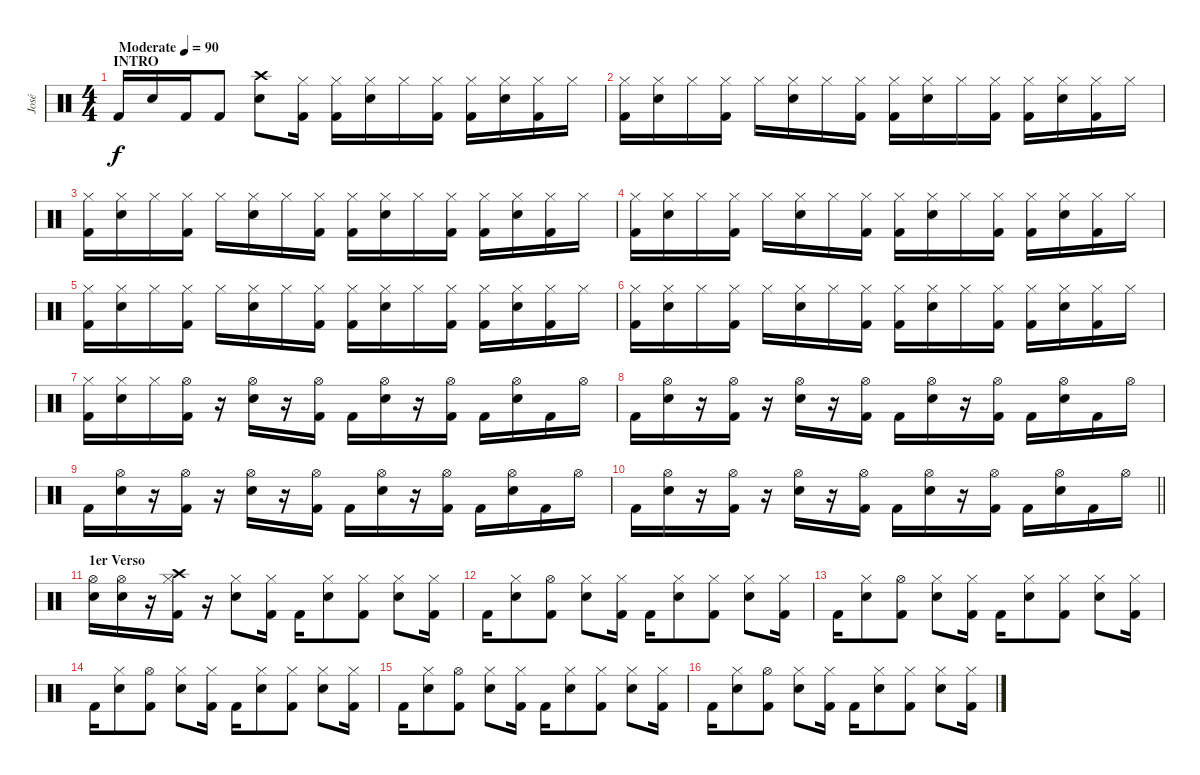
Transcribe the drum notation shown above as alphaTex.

\track ("José" "José") {instrument percussion}
\staff {score}
\articulation defaults
\ts (4 4)
\section ("" "INTRO")
\tempo (90 "Moderate")
\clef neutral
\ks c "Kick (hit) 2".16{dy f} "Electric Snare (hit)".16 "Kick (hit) 2".16 "Kick (hit) 2".8
("Crash high (hit)" "Electric Snare (hit)").8 ("Hi-Hat (closed)" "Kick (hit) 2").16 ("Hi-Hat (closed)" "Kick (hit) 2").16 ("Hi-Hat (closed)" "Electric Snare (hit)").16 "Hi-Hat (closed)".16 ("Hi-Hat (closed)" "Kick (hit) 2").16 ("Hi-Hat (closed)" "Kick (hit) 2").16 ("Hi-Hat (closed)" "Electric Snare (hit)").16 ("Hi-Hat (closed)" "Kick (hit) 2").16 "Hi-Hat (closed)".16 |
("Hi-Hat (closed)" "Kick (hit) 2").16 ("Hi-Hat (closed)" "Electric Snare (hit)").16 "Hi-Hat (closed)".16 ("Hi-Hat (closed)" "Kick (hit) 2").16 "Hi-Hat (closed)".16 ("Hi-Hat (closed)" "Electric Snare (hit)").16 "Hi-Hat (closed)".16 ("Hi-Hat (closed)" "Kick (hit) 2").16 ("Hi-Hat (closed)" "Kick (hit) 2").16 ("Hi-Hat (closed)" "Electric Snare (hit)").16 "Hi-Hat (closed)".16 ("Hi-Hat (closed)" "Kick (hit) 2").16 ("Hi-Hat (closed)" "Kick (hit) 2").16 ("Hi-Hat (closed)" "Electric Snare (hit)").16 ("Hi-Hat (closed)" "Kick (hit) 2").16 "Hi-Hat (closed)".16 |
("Hi-Hat (closed)" "Kick (hit) 2").16 ("Hi-Hat (closed)" "Electric Snare (hit)").16 "Hi-Hat (closed)".16 ("Hi-Hat (closed)" "Kick (hit) 2").16 "Hi-Hat (closed)".16 ("Hi-Hat (closed)" "Electric Snare (hit)").16 "Hi-Hat (closed)".16 ("Hi-Hat (closed)" "Kick (hit) 2").16 ("Hi-Hat (closed)" "Kick (hit) 2").16 ("Hi-Hat (closed)" "Electric Snare (hit)").16 "Hi-Hat (closed)".16 ("Hi-Hat (closed)" "Kick (hit) 2").16 ("Hi-Hat (closed)" "Kick (hit) 2").16 ("Hi-Hat (closed)" "Electric Snare (hit)").16 ("Hi-Hat (closed)" "Kick (hit) 2").16 "Hi-Hat (closed)".16 |
("Hi-Hat (closed)" "Kick (hit) 2").16 ("Hi-Hat (closed)" "Electric Snare (hit)").16 "Hi-Hat (closed)".16 ("Hi-Hat (closed)" "Kick (hit) 2").16 "Hi-Hat (closed)".16 ("Hi-Hat (closed)" "Electric Snare (hit)").16 "Hi-Hat (closed)".16 ("Hi-Hat (closed)" "Kick (hit) 2").16 ("Hi-Hat (closed)" "Kick (hit) 2").16 ("Hi-Hat (closed)" "Electric Snare (hit)").16 "Hi-Hat (closed)".16 ("Hi-Hat (closed)" "Kick (hit) 2").16 ("Hi-Hat (closed)" "Kick (hit) 2").16 ("Hi-Hat (closed)" "Electric Snare (hit)").16 ("Hi-Hat (closed)" "Kick (hit) 2").16 "Hi-Hat (closed)".16 |
("Hi-Hat (closed)" "Kick (hit) 2").16 ("Hi-Hat (closed)" "Electric Snare (hit)").16 "Hi-Hat (closed)".16 ("Hi-Hat (closed)" "Kick (hit) 2").16 "Hi-Hat (closed)".16 ("Hi-Hat (closed)" "Electric Snare (hit)").16 "Hi-Hat (closed)".16 ("Hi-Hat (closed)" "Kick (hit) 2").16 ("Hi-Hat (closed)" "Kick (hit) 2").16 ("Hi-Hat (closed)" "Electric Snare (hit)").16 "Hi-Hat (closed)".16 ("Hi-Hat (closed)" "Kick (hit) 2").16 ("Hi-Hat (closed)" "Kick (hit) 2").16 ("Hi-Hat (closed)" "Electric Snare (hit)").16 ("Hi-Hat (closed)" "Kick (hit) 2").16 "Hi-Hat (closed)".16 |
("Hi-Hat (closed)" "Kick (hit) 2").16 ("Hi-Hat (closed)" "Electric Snare (hit)").16 "Hi-Hat (closed)".16 ("Hi-Hat (closed)" "Kick (hit) 2").16 "Hi-Hat (closed)".16 ("Hi-Hat (closed)" "Electric Snare (hit)").16 "Hi-Hat (closed)".16 ("Hi-Hat (closed)" "Kick (hit) 2").16 ("Hi-Hat (closed)" "Kick (hit) 2").16 ("Hi-Hat (closed)" "Electric Snare (hit)").16 "Hi-Hat (closed)".16 ("Hi-Hat (closed)" "Kick (hit) 2").16 ("Hi-Hat (closed)" "Kick (hit) 2").16 ("Hi-Hat (closed)" "Electric Snare (hit)").16 ("Hi-Hat (closed)" "Kick (hit) 2").16 "Hi-Hat (closed)".16 |
("Hi-Hat (closed)" "Kick (hit) 2").16 ("Hi-Hat (closed)" "Electric Snare (hit)").16 "Hi-Hat (closed)".16 ("Hi-Hat (open)" "Kick (hit) 2").16 r.16 ("Hi-Hat (open)" "Electric Snare (hit)").16 r.16 ("Hi-Hat (open)" "Kick (hit) 2").16 "Kick (hit) 2".16 ("Hi-Hat (open)" "Electric Snare (hit)").16 r.16 ("Hi-Hat (open)" "Kick (hit) 2").16 "Kick (hit) 2".16 ("Hi-Hat (open)" "Electric Snare (hit)").16 "Kick (hit) 2".16 "Hi-Hat (open)".16 |
"Kick (hit) 2".16 ("Hi-Hat (open)" "Electric Snare (hit)").16 r.16 ("Hi-Hat (open)" "Kick (hit) 2").16 r.16 ("Hi-Hat (open)" "Electric Snare (hit)").16 r.16 ("Hi-Hat (open)" "Kick (hit) 2").16 "Kick (hit) 2".16 ("Hi-Hat (open)" "Electric Snare (hit)").16 r.16 ("Hi-Hat (open)" "Kick (hit) 2").16 "Kick (hit) 2".16 ("Hi-Hat (open)" "Electric Snare (hit)").16 "Kick (hit) 2".16 "Hi-Hat (open)".16 |
"Kick (hit) 2".16 ("Hi-Hat (open)" "Electric Snare (hit)").16 r.16 ("Hi-Hat (open)" "Kick (hit) 2").16 r.16 ("Hi-Hat (open)" "Electric Snare (hit)").16 r.16 ("Hi-Hat (open)" "Kick (hit) 2").16 "Kick (hit) 2".16 ("Hi-Hat (open)" "Electric Snare (hit)").16 r.16 ("Hi-Hat (open)" "Kick (hit) 2").16 "Kick (hit) 2".16 ("Hi-Hat (open)" "Electric Snare (hit)").16 "Kick (hit) 2".16 "Hi-Hat (open)".16 |
\barLineRight lightlight "Kick (hit) 2".16
("Hi-Hat (open)" "Electric Snare (hit)").16 r.16 ("Hi-Hat (open)" "Kick (hit) 2").16 r.16 ("Hi-Hat (open)" "Electric Snare (hit)").16 r.16 ("Hi-Hat (open)" "Kick (hit) 2").16 "Kick (hit) 2".16 ("Hi-Hat (open)" "Electric Snare (hit)").16 r.16 ("Hi-Hat (open)" "Kick (hit) 2").16 "Kick (hit) 2".16 ("Hi-Hat (open)" "Electric Snare (hit)").16 "Kick (hit) 2".16 "Hi-Hat (open)".16 |
\section ("" "1er Verso")
("Hi-Hat (open)" "Electric Snare (hit)").16 ("Hi-Hat (open)" "Electric Snare (hit)").16 r.16 ("Crash high (hit)" "Hi-Hat (closed)" "Kick (hit) 2").16 r.16 ("Hi-Hat (closed)" "Electric Snare (hit)").8 ("Hi-Hat (closed)" "Kick (hit) 2").16 "Kick (hit) 2".16 ("Hi-Hat (closed)" "Electric Snare (hit)").8 ("Hi-Hat (closed)" "Kick (hit) 2").8 ("Hi-Hat (closed)" "Electric Snare (hit)").8 ("Hi-Hat (closed)" "Kick (hit) 2").16 |
"Kick (hit) 2".16 ("Hi-Hat (closed)" "Electric Snare (hit)").8 ("Hi-Hat (open)" "Kick (hit) 2").8 ("Hi-Hat (closed)" "Electric Snare (hit)").8 ("Hi-Hat (closed)" "Kick (hit) 2").16 "Kick (hit) 2".16 ("Hi-Hat (closed)" "Electric Snare (hit)").8 ("Hi-Hat (closed)" "Kick (hit) 2").8 ("Hi-Hat (closed)" "Electric Snare (hit)").8 ("Hi-Hat (closed)" "Kick (hit) 2").16 |
"Kick (hit) 2".16 ("Hi-Hat (closed)" "Electric Snare (hit)").8 ("Hi-Hat (open)" "Kick (hit) 2").8 ("Hi-Hat (closed)" "Electric Snare (hit)").8 ("Hi-Hat (closed)" "Kick (hit) 2").16 "Kick (hit) 2".16 ("Hi-Hat (closed)" "Electric Snare (hit)").8 ("Hi-Hat (closed)" "Kick (hit) 2").8 ("Hi-Hat (closed)" "Electric Snare (hit)").8 ("Hi-Hat (closed)" "Kick (hit) 2").16 |
"Kick (hit) 2".16 ("Hi-Hat (closed)" "Electric Snare (hit)").8 ("Hi-Hat (open)" "Kick (hit) 2").8 ("Hi-Hat (closed)" "Electric Snare (hit)").8 ("Hi-Hat (closed)" "Kick (hit) 2").16 "Kick (hit) 2".16 ("Hi-Hat (closed)" "Electric Snare (hit)").8 ("Hi-Hat (closed)" "Kick (hit) 2").8 ("Hi-Hat (closed)" "Electric Snare (hit)").8 ("Hi-Hat (closed)" "Kick (hit) 2").16 |
"Kick (hit) 2".16 ("Hi-Hat (closed)" "Electric Snare (hit)").8 ("Hi-Hat (open)" "Kick (hit) 2").8 ("Hi-Hat (closed)" "Electric Snare (hit)").8 ("Hi-Hat (closed)" "Kick (hit) 2").16 "Kick (hit) 2".16 ("Hi-Hat (closed)" "Electric Snare (hit)").8 ("Hi-Hat (closed)" "Kick (hit) 2").8 ("Hi-Hat (closed)" "Electric Snare (hit)").8 ("Hi-Hat (closed)" "Kick (hit) 2").16 |
"Kick (hit) 2".16 ("Hi-Hat (closed)" "Electric Snare (hit)").8 ("Hi-Hat (open)" "Kick (hit) 2").8 ("Hi-Hat (closed)" "Electric Snare (hit)").8 ("Hi-Hat (closed)" "Kick (hit) 2").16 "Kick (hit) 2".16 ("Hi-Hat (closed)" "Electric Snare (hit)").8 ("Hi-Hat (closed)" "Kick (hit) 2").8 ("Hi-Hat (closed)" "Electric Snare (hit)").8 ("Hi-Hat (closed)" "Kick (hit) 2").16
